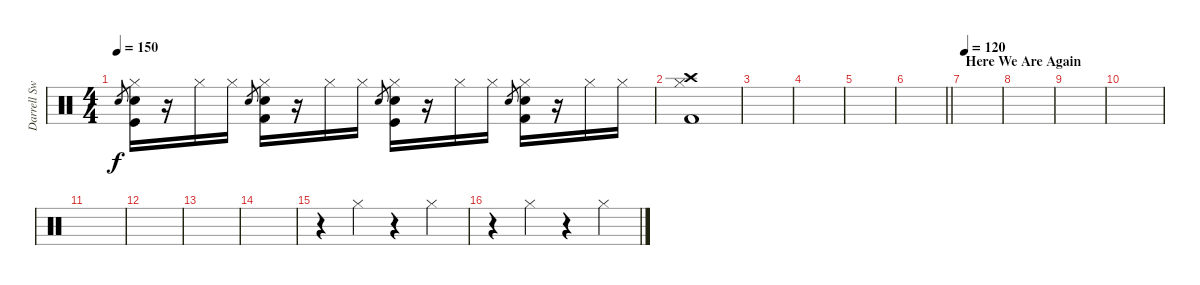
\track ("Darrell Sweet (drums)" "Darrell Sw") {instrument percussion}
\staff {score}
\articulation defaults
\ts (4 4)
\tempo 150
\clef neutral
\ks c "Snare (hit) 2".8{gr dy f}
("Hi-Hat (closed)" "Kick (hit)" "Snare (hit) 2").16 r.16 "Hi-Hat (closed)".16 "Hi-Hat (closed)".16 "Snare (hit) 2".8{gr beam merge} ("Hi-Hat (closed)" "Kick (hit) 2" "Snare (hit) 2").16 r.16 "Hi-Hat (closed)".16 "Hi-Hat (closed)".16 "Snare (hit) 2".8{gr beam merge} ("Hi-Hat (closed)" "Kick (hit)" "Snare (hit) 2").16 r.16 "Hi-Hat (closed)".16 "Hi-Hat (closed)".16 "Snare (hit) 2".8{gr beam merge} ("Hi-Hat (closed)" "Kick (hit) 2" "Snare (hit) 2").16 r.16 "Hi-Hat (closed)".16 "Hi-Hat (closed)".16 |
("Kick (hit) 2" "Crash high (hit)" "Hi-Hat (closed)").1 |
|
|
|
\barLineRight lightlight
|
\section ("" "Here We Are Again")
\tempo 120
|
|
|
|
|
|
|
|
r.4 "Hi-Hat (closed)".4 r.4 "Hi-Hat (closed)".4 |
r.4 "Hi-Hat (closed)".4 r.4 "Hi-Hat (closed)".4
